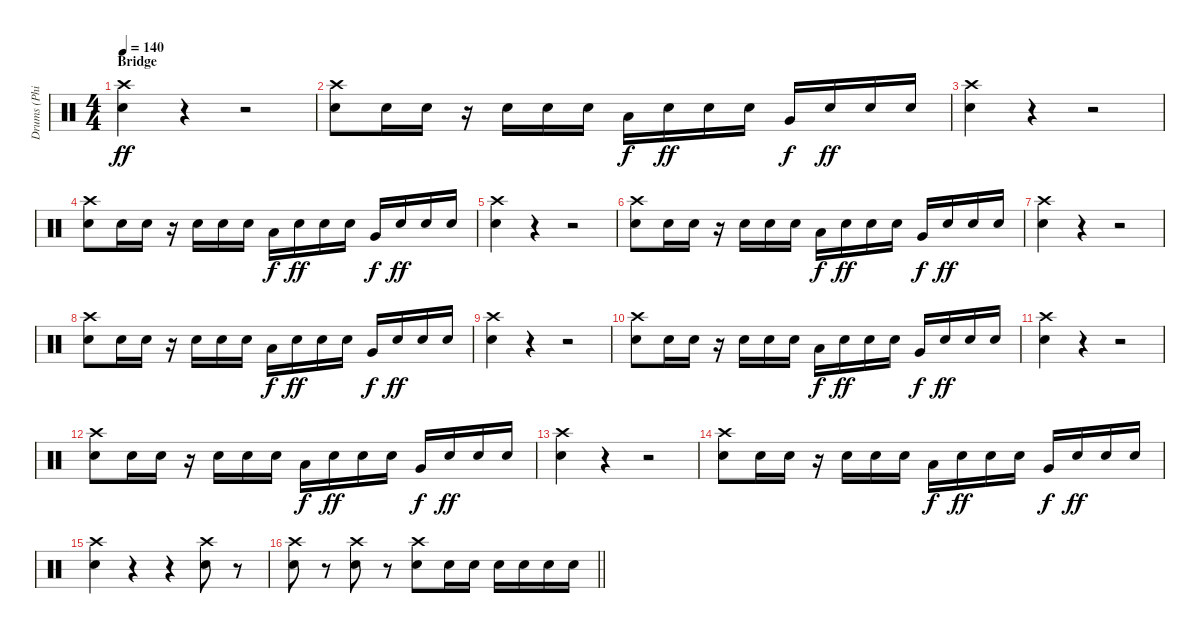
\track ("Drums (Phillip Selway)" "Drums (Phi") {instrument percussion}
\staff {score}
\articulation defaults
\ts (4 4)
\section ("" "Bridge")
\tempo 140
\clef neutral
\ks c
("Crash high (hit)" "Electric Snare (hit)").4{dy ff} r.4 r.2 |
("Crash high (hit)" "Electric Snare (hit)").8 "Electric Snare (hit)".16 "Electric Snare (hit)".16 r.16 "Electric Snare (hit)".16 "Electric Snare (hit)".16 "Electric Snare (hit)".16 "Low Floor Tom (hit)".16{dy f} "Electric Snare (hit)".16{dy ff} "Electric Snare (hit)".16 "Electric Snare (hit)".16 "Very Low Tom (hit)".16{dy f} "Electric Snare (hit)".16{dy ff} "Electric Snare (hit)".16 "Electric Snare (hit)".16 |
("Crash high (hit)" "Electric Snare (hit)").4 r.4 r.2 |
("Crash high (hit)" "Electric Snare (hit)").8 "Electric Snare (hit)".16 "Electric Snare (hit)".16 r.16 "Electric Snare (hit)".16 "Electric Snare (hit)".16 "Electric Snare (hit)".16 "Low Floor Tom (hit)".16{dy f} "Electric Snare (hit)".16{dy ff} "Electric Snare (hit)".16 "Electric Snare (hit)".16 "Very Low Tom (hit)".16{dy f} "Electric Snare (hit)".16{dy ff} "Electric Snare (hit)".16 "Electric Snare (hit)".16 |
("Crash high (hit)" "Electric Snare (hit)").4 r.4 r.2 |
("Crash high (hit)" "Electric Snare (hit)").8 "Electric Snare (hit)".16 "Electric Snare (hit)".16 r.16 "Electric Snare (hit)".16 "Electric Snare (hit)".16 "Electric Snare (hit)".16 "Low Floor Tom (hit)".16{dy f} "Electric Snare (hit)".16{dy ff} "Electric Snare (hit)".16 "Electric Snare (hit)".16 "Very Low Tom (hit)".16{dy f} "Electric Snare (hit)".16{dy ff} "Electric Snare (hit)".16 "Electric Snare (hit)".16 |
("Crash high (hit)" "Electric Snare (hit)").4 r.4 r.2 |
("Crash high (hit)" "Electric Snare (hit)").8 "Electric Snare (hit)".16 "Electric Snare (hit)".16 r.16 "Electric Snare (hit)".16 "Electric Snare (hit)".16 "Electric Snare (hit)".16 "Low Floor Tom (hit)".16{dy f} "Electric Snare (hit)".16{dy ff} "Electric Snare (hit)".16 "Electric Snare (hit)".16 "Very Low Tom (hit)".16{dy f} "Electric Snare (hit)".16{dy ff} "Electric Snare (hit)".16 "Electric Snare (hit)".16 |
("Crash high (hit)" "Electric Snare (hit)").4 r.4 r.2 |
("Crash high (hit)" "Electric Snare (hit)").8 "Electric Snare (hit)".16 "Electric Snare (hit)".16 r.16 "Electric Snare (hit)".16 "Electric Snare (hit)".16 "Electric Snare (hit)".16 "Low Floor Tom (hit)".16{dy f} "Electric Snare (hit)".16{dy ff} "Electric Snare (hit)".16 "Electric Snare (hit)".16 "Very Low Tom (hit)".16{dy f} "Electric Snare (hit)".16{dy ff} "Electric Snare (hit)".16 "Electric Snare (hit)".16 |
("Crash high (hit)" "Electric Snare (hit)").4 r.4 r.2 |
("Crash high (hit)" "Electric Snare (hit)").8 "Electric Snare (hit)".16 "Electric Snare (hit)".16 r.16 "Electric Snare (hit)".16 "Electric Snare (hit)".16 "Electric Snare (hit)".16 "Low Floor Tom (hit)".16{dy f} "Electric Snare (hit)".16{dy ff} "Electric Snare (hit)".16 "Electric Snare (hit)".16 "Very Low Tom (hit)".16{dy f} "Electric Snare (hit)".16{dy ff} "Electric Snare (hit)".16 "Electric Snare (hit)".16 |
("Crash high (hit)" "Electric Snare (hit)").4 r.4 r.2 |
("Crash high (hit)" "Electric Snare (hit)").8 "Electric Snare (hit)".16 "Electric Snare (hit)".16 r.16 "Electric Snare (hit)".16 "Electric Snare (hit)".16 "Electric Snare (hit)".16 "Low Floor Tom (hit)".16{dy f} "Electric Snare (hit)".16{dy ff} "Electric Snare (hit)".16 "Electric Snare (hit)".16 "Very Low Tom (hit)".16{dy f} "Electric Snare (hit)".16{dy ff} "Electric Snare (hit)".16 "Electric Snare (hit)".16 |
("Crash high (hit)" "Electric Snare (hit)").4 r.4 r.4 ("Crash high (hit)" "Electric Snare (hit)").8 r.8 |
\barLineRight lightlight
("Crash high (hit)" "Electric Snare (hit)").8 r.8 ("Crash high (hit)" "Electric Snare (hit)").8 r.8 ("Crash high (hit)" "Electric Snare (hit)").8 "Electric Snare (hit)".16 "Electric Snare (hit)".16 "Electric Snare (hit)".16 "Electric Snare (hit)".16 "Electric Snare (hit)".16 "Electric Snare (hit)".16
